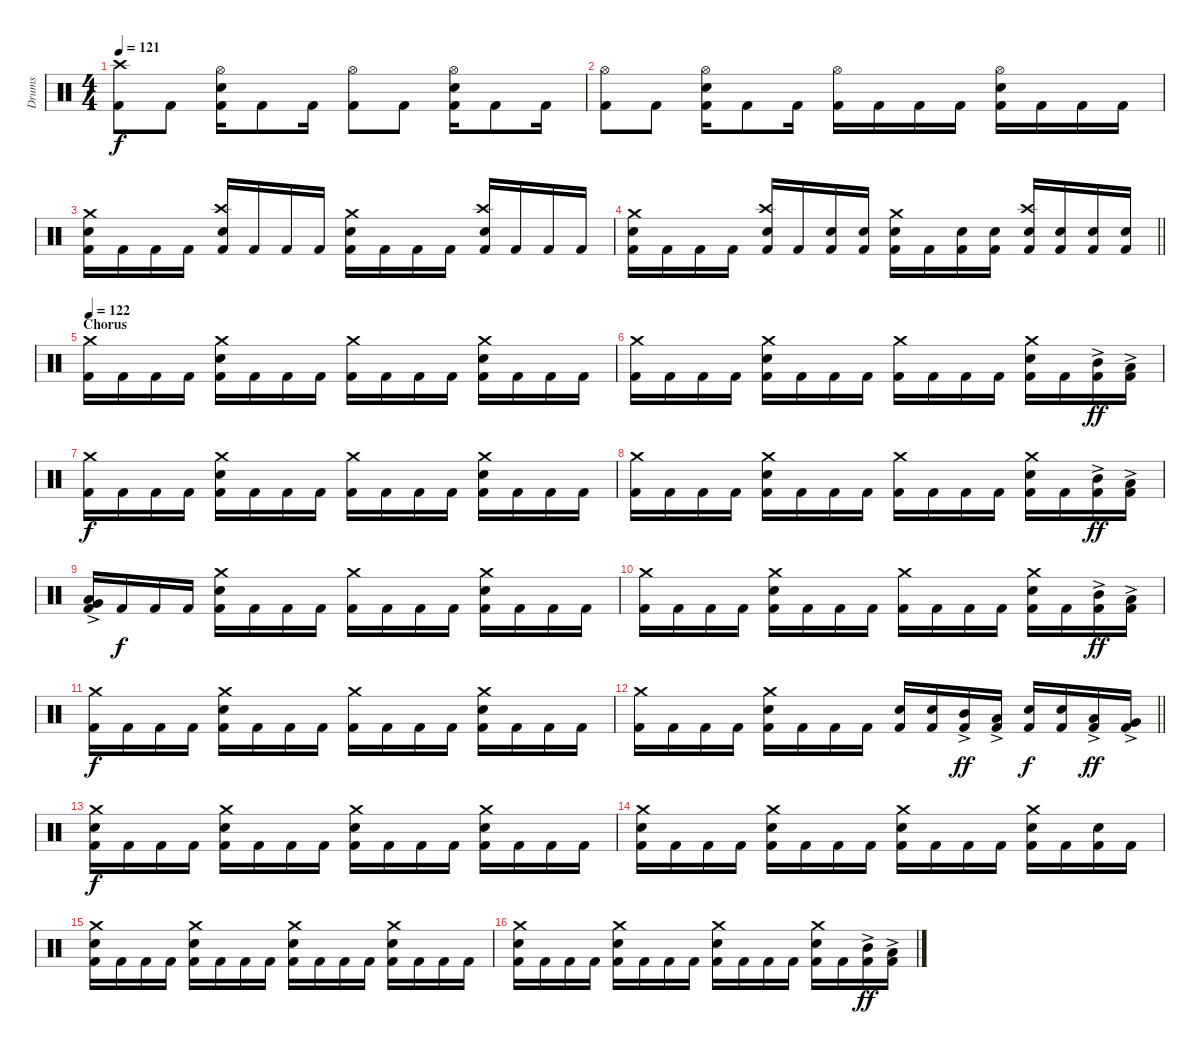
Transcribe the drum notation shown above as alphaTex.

\track ("Drums" "Drums") {instrument percussion}
\staff {score}
\articulation defaults
\ts (4 4)
\section ("" "")
\tempo 121
\clef neutral
\ks c
("Kick (hit) 2" "Crash high (hit)").8{dy f} "Kick (hit) 2".8 ("Kick (hit) 2" "Snare (hit) 2" "Hi-Hat (open)").16 "Kick (hit) 2".8 "Kick (hit) 2".16 ("Kick (hit) 2" "Hi-Hat (open)").8 "Kick (hit) 2".8 ("Kick (hit) 2" "Snare (hit) 2" "Hi-Hat (open)").16 "Kick (hit) 2".8 "Kick (hit) 2".16 |
("Kick (hit) 2" "Hi-Hat (open)").8 "Kick (hit) 2".8 ("Kick (hit) 2" "Snare (hit) 2" "Hi-Hat (open)").16 "Kick (hit) 2".8 "Kick (hit) 2".16 ("Kick (hit) 2" "Hi-Hat (open)").16 "Kick (hit) 2".16 "Kick (hit) 2".16 "Kick (hit) 2".16 ("Kick (hit) 2" "Snare (hit) 2" "Hi-Hat (open)").16 "Kick (hit) 2".16 "Kick (hit) 2".16 "Kick (hit) 2".16 |
("Kick (hit) 2" "Snare (hit) 2" "Crash medium (hit)").16 "Kick (hit) 2".16 "Kick (hit) 2".16 "Kick (hit) 2".16 ("Kick (hit) 2" "Snare (hit) 2" "Crash high (hit)").16 "Kick (hit) 2".16 "Kick (hit) 2".16 "Kick (hit) 2".16 ("Kick (hit) 2" "Snare (hit) 2" "Crash medium (hit)").16 "Kick (hit) 2".16 "Kick (hit) 2".16 "Kick (hit) 2".16 ("Kick (hit) 2" "Snare (hit) 2" "Crash high (hit)").16 "Kick (hit) 2".16 "Kick (hit) 2".16 "Kick (hit) 2".16 |
\barLineRight lightlight
("Kick (hit) 2" "Snare (hit) 2" "Crash medium (hit)").16 "Kick (hit) 2".16 "Kick (hit) 2".16 "Kick (hit) 2".16 ("Kick (hit) 2" "Snare (hit) 2" "Crash high (hit)").16 "Kick (hit) 2".16 ("Kick (hit) 2" "Snare (hit) 2").16 ("Kick (hit) 2" "Snare (hit) 2").16 ("Kick (hit) 2" "Snare (hit) 2" "Crash medium (hit)").16 "Kick (hit) 2".16 ("Kick (hit) 2" "Snare (hit) 2").16 ("Kick (hit) 2" "Snare (hit) 2").16 ("Kick (hit) 2" "Snare (hit) 2" "Crash high (hit)").16 ("Kick (hit) 2" "Snare (hit) 2").16 ("Kick (hit) 2" "Snare (hit) 2").16 ("Kick (hit) 2" "Snare (hit) 2").16 |
\section ("" "Chorus")
\tempo 122
("Kick (hit) 2" "Crash medium (hit)").16 "Kick (hit) 2".16 "Kick (hit) 2".16 "Kick (hit) 2".16 ("Kick (hit) 2" "Snare (hit) 2" "Crash medium (hit)").16 "Kick (hit) 2".16 "Kick (hit) 2".16 "Kick (hit) 2".16 ("Kick (hit) 2" "Crash medium (hit)").16 "Kick (hit) 2".16 "Kick (hit) 2".16 "Kick (hit) 2".16 ("Kick (hit) 2" "Snare (hit) 2" "Crash medium (hit)").16 "Kick (hit) 2".16 "Kick (hit) 2".16 "Kick (hit) 2".16 |
("Kick (hit) 2" "Crash medium (hit)").16 "Kick (hit) 2".16 "Kick (hit) 2".16 "Kick (hit) 2".16 ("Kick (hit) 2" "Snare (hit) 2" "Crash medium (hit)").16 "Kick (hit) 2".16 "Kick (hit) 2".16 "Kick (hit) 2".16 ("Kick (hit) 2" "Crash medium (hit)").16 "Kick (hit) 2".16 "Kick (hit) 2".16 "Kick (hit) 2".16 ("Kick (hit) 2" "Snare (hit) 2" "Crash medium (hit)").16 "Kick (hit) 2".16 ("Kick (hit) 2" "Mid Tom (hit)"{ac}).16{dy ff} ("Kick (hit) 2" "Low Tom (hit)"{ac}).16 |
("Kick (hit) 2" "Crash medium (hit)").16{dy f} "Kick (hit) 2".16 "Kick (hit) 2".16 "Kick (hit) 2".16 ("Kick (hit) 2" "Snare (hit) 2" "Crash medium (hit)").16 "Kick (hit) 2".16 "Kick (hit) 2".16 "Kick (hit) 2".16 ("Kick (hit) 2" "Crash medium (hit)").16 "Kick (hit) 2".16 "Kick (hit) 2".16 "Kick (hit) 2".16 ("Kick (hit) 2" "Snare (hit) 2" "Crash medium (hit)").16 "Kick (hit) 2".16 "Kick (hit) 2".16 "Kick (hit) 2".16 |
("Kick (hit) 2" "Crash medium (hit)").16 "Kick (hit) 2".16 "Kick (hit) 2".16 "Kick (hit) 2".16 ("Kick (hit) 2" "Snare (hit) 2" "Crash medium (hit)").16 "Kick (hit) 2".16 "Kick (hit) 2".16 "Kick (hit) 2".16 ("Kick (hit) 2" "Crash medium (hit)").16 "Kick (hit) 2".16 "Kick (hit) 2".16 "Kick (hit) 2".16 ("Kick (hit) 2" "Snare (hit) 2" "Crash medium (hit)").16 "Kick (hit) 2".16 ("Kick (hit) 2" "Mid Tom (hit)"{ac}).16{dy ff} ("Kick (hit) 2" "Low Tom (hit)"{ac}).16 |
("Kick (hit) 2" "Low Tom (hit)"{ac} "Very Low Tom (hit)").16 "Kick (hit) 2".16{dy f} "Kick (hit) 2".16 "Kick (hit) 2".16 ("Kick (hit) 2" "Snare (hit) 2" "Crash medium (hit)").16 "Kick (hit) 2".16 "Kick (hit) 2".16 "Kick (hit) 2".16 ("Kick (hit) 2" "Crash medium (hit)").16 "Kick (hit) 2".16 "Kick (hit) 2".16 "Kick (hit) 2".16 ("Kick (hit) 2" "Snare (hit) 2" "Crash medium (hit)").16 "Kick (hit) 2".16 "Kick (hit) 2".16 "Kick (hit) 2".16 |
("Kick (hit) 2" "Crash medium (hit)").16 "Kick (hit) 2".16 "Kick (hit) 2".16 "Kick (hit) 2".16 ("Kick (hit) 2" "Snare (hit) 2" "Crash medium (hit)").16 "Kick (hit) 2".16 "Kick (hit) 2".16 "Kick (hit) 2".16 ("Kick (hit) 2" "Crash medium (hit)").16 "Kick (hit) 2".16 "Kick (hit) 2".16 "Kick (hit) 2".16 ("Kick (hit) 2" "Snare (hit) 2" "Crash medium (hit)").16 "Kick (hit) 2".16 ("Kick (hit) 2" "Mid Tom (hit)"{ac}).16{dy ff} ("Kick (hit) 2" "Low Tom (hit)"{ac}).16 |
("Kick (hit) 2" "Crash medium (hit)").16{dy f} "Kick (hit) 2".16 "Kick (hit) 2".16 "Kick (hit) 2".16 ("Kick (hit) 2" "Snare (hit) 2" "Crash medium (hit)").16 "Kick (hit) 2".16 "Kick (hit) 2".16 "Kick (hit) 2".16 ("Kick (hit) 2" "Crash medium (hit)").16 "Kick (hit) 2".16 "Kick (hit) 2".16 "Kick (hit) 2".16 ("Kick (hit) 2" "Snare (hit) 2" "Crash medium (hit)").16 "Kick (hit) 2".16 "Kick (hit) 2".16 "Kick (hit) 2".16 |
\barLineRight lightlight
("Kick (hit) 2" "Crash medium (hit)").16 "Kick (hit) 2".16 "Kick (hit) 2".16 "Kick (hit) 2".16 ("Kick (hit) 2" "Snare (hit) 2" "Crash medium (hit)").16 "Kick (hit) 2".16 "Kick (hit) 2".16 "Kick (hit) 2".16 ("Kick (hit) 2" "Snare (hit) 2").16 ("Kick (hit) 2" "Snare (hit) 2").16 ("Kick (hit) 2" "Mid Tom (hit)"{ac}).16{dy ff} ("Kick (hit) 2" "Low Tom (hit)"{ac}).16 ("Kick (hit) 2" "Snare (hit) 2").16{dy f} ("Kick (hit) 2" "Snare (hit) 2").16 ("Kick (hit) 2" "Low Tom (hit)"{ac}).16{dy ff} ("Kick (hit) 2" "Very Low Tom (hit)"{ac}).16 |
\section ("" "")
("Kick (hit) 2" "Snare (hit) 2" "Crash medium (hit)").16{dy f} "Kick (hit) 2".16 "Kick (hit) 2".16 "Kick (hit) 2".16 ("Kick (hit) 2" "Snare (hit) 2" "Crash medium (hit)").16 "Kick (hit) 2".16 "Kick (hit) 2".16 "Kick (hit) 2".16 ("Kick (hit) 2" "Snare (hit) 2" "Crash medium (hit)").16 "Kick (hit) 2".16 "Kick (hit) 2".16 "Kick (hit) 2".16 ("Kick (hit) 2" "Snare (hit) 2" "Crash medium (hit)").16 "Kick (hit) 2".16 "Kick (hit) 2".16 "Kick (hit) 2".16 |
("Kick (hit) 2" "Snare (hit) 2" "Crash medium (hit)").16 "Kick (hit) 2".16 "Kick (hit) 2".16 "Kick (hit) 2".16 ("Kick (hit) 2" "Snare (hit) 2" "Crash medium (hit)").16 "Kick (hit) 2".16 "Kick (hit) 2".16 "Kick (hit) 2".16 ("Kick (hit) 2" "Snare (hit) 2" "Crash medium (hit)").16 "Kick (hit) 2".16 "Kick (hit) 2".16 "Kick (hit) 2".16 ("Kick (hit) 2" "Snare (hit) 2" "Crash medium (hit)").16 "Kick (hit) 2".16 ("Kick (hit) 2" "Snare (hit) 2").16 "Kick (hit) 2".16 |
("Kick (hit) 2" "Snare (hit) 2" "Crash medium (hit)").16 "Kick (hit) 2".16 "Kick (hit) 2".16 "Kick (hit) 2".16 ("Kick (hit) 2" "Snare (hit) 2" "Crash medium (hit)").16 "Kick (hit) 2".16 "Kick (hit) 2".16 "Kick (hit) 2".16 ("Kick (hit) 2" "Snare (hit) 2" "Crash medium (hit)").16 "Kick (hit) 2".16 "Kick (hit) 2".16 "Kick (hit) 2".16 ("Kick (hit) 2" "Snare (hit) 2" "Crash medium (hit)").16 "Kick (hit) 2".16 "Kick (hit) 2".16 "Kick (hit) 2".16 |
("Kick (hit) 2" "Snare (hit) 2" "Crash medium (hit)").16 "Kick (hit) 2".16 "Kick (hit) 2".16 "Kick (hit) 2".16 ("Kick (hit) 2" "Snare (hit) 2" "Crash medium (hit)").16 "Kick (hit) 2".16 "Kick (hit) 2".16 "Kick (hit) 2".16 ("Kick (hit) 2" "Snare (hit) 2" "Crash medium (hit)").16 "Kick (hit) 2".16 "Kick (hit) 2".16 "Kick (hit) 2".16 ("Kick (hit) 2" "Snare (hit) 2" "Crash medium (hit)").16 "Kick (hit) 2".16 ("Kick (hit) 2" "Mid Tom (hit)"{ac}).16{dy ff} ("Kick (hit) 2" "Low Tom (hit)"{ac}).16
